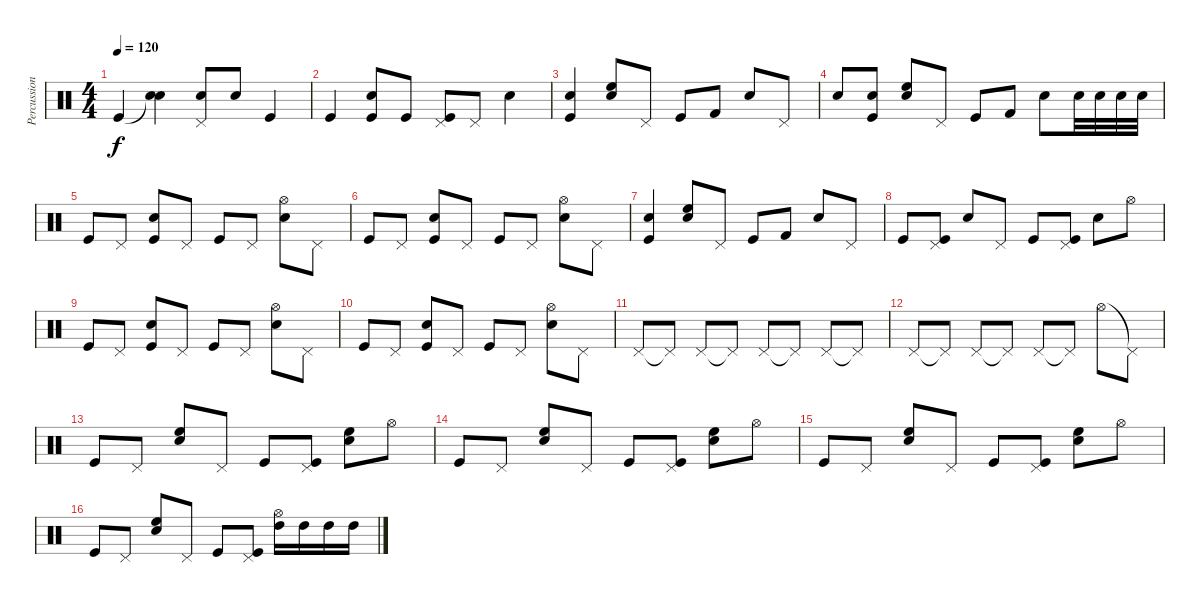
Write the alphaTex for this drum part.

\track ("Percussion" "Percussion") {instrument percussion}
\staff {score}
\articulation defaults
\ts (4 4)
\tempo 120
\clef neutral
\ks c "Kick (hit)".4{dy f}
("Snare (hit)"{t} "Snare (hit) 2").4 ("Pedal Hi-Hat (hit)" "Snare (hit) 2").8 "Snare (hit) 2".8 "Kick (hit)".4 |
"Kick (hit)".4 ("Snare (hit) 2" "Kick (hit)").8 "Kick (hit)".8 ("Pedal Hi-Hat (hit)" "Kick (hit)").8 "Pedal Hi-Hat (hit)".8 "Electric Snare (hit)".4 |
("Kick (hit)" "Snare (hit) 2").4 ("High Floor Tom (hit)" "Electric Snare (hit)").8 "Pedal Hi-Hat (hit)".8 "Kick (hit)".8 "Kick (hit) 2".8 "Electric Snare (hit)".8 "Pedal Hi-Hat (hit)".8 |
"Electric Snare (hit)".8 ("Kick (hit)" "Snare (hit) 2").8 ("High Floor Tom (hit)" "Electric Snare (hit)").8 "Pedal Hi-Hat (hit)".8 "Kick (hit)".8 "Kick (hit) 2".8 "Electric Snare (hit)".8 "Snare (hit) 2".32 "Snare (hit) 2".32 "Snare (hit) 2".32 "Snare (hit) 2".32 |
"Kick (hit)".8 "Pedal Hi-Hat (hit)".8 ("Snare (hit) 2" "Kick (hit)").8 "Pedal Hi-Hat (hit)".8 "Kick (hit)".8 "Pedal Hi-Hat (hit)".8 ("Electric Snare (hit)" "Hi-Hat (open)").8 "Pedal Hi-Hat (hit)".8 |
"Kick (hit)".8 "Pedal Hi-Hat (hit)".8 ("Snare (hit) 2" "Kick (hit)").8 "Pedal Hi-Hat (hit)".8 "Kick (hit)".8 "Pedal Hi-Hat (hit)".8 ("Electric Snare (hit)" "Hi-Hat (open)").8 "Pedal Hi-Hat (hit)".8 |
("Kick (hit)" "Snare (hit) 2").4 ("High Floor Tom (hit)" "Electric Snare (hit)").8 "Pedal Hi-Hat (hit)".8 "Kick (hit)".8 "Kick (hit) 2".8 "Electric Snare (hit)".8 "Pedal Hi-Hat (hit)".8 |
"Kick (hit)".8 ("Pedal Hi-Hat (hit)" "Kick (hit)").8 "Snare (hit) 2".8 "Pedal Hi-Hat (hit)".8 "Kick (hit)".8 ("Pedal Hi-Hat (hit)" "Kick (hit)").8 "Snare (hit) 2".8 "Hi-Hat (open)".8 |
"Kick (hit)".8 "Pedal Hi-Hat (hit)".8 ("Snare (hit) 2" "Kick (hit)").8 "Pedal Hi-Hat (hit)".8 "Kick (hit)".8 "Pedal Hi-Hat (hit)".8 ("Electric Snare (hit)" "Hi-Hat (open)").8 "Pedal Hi-Hat (hit)".8 |
"Kick (hit)".8 "Pedal Hi-Hat (hit)".8 ("Snare (hit) 2" "Kick (hit)").8 "Pedal Hi-Hat (hit)".8 "Kick (hit)".8 "Pedal Hi-Hat (hit)".8 ("Electric Snare (hit)" "Hi-Hat (open)").8 "Pedal Hi-Hat (hit)".8 |
"Pedal Hi-Hat (hit)".8 "Pedal Hi-Hat (hit)"{t}.8 "Pedal Hi-Hat (hit)".8 "Pedal Hi-Hat (hit)"{t}.8 "Pedal Hi-Hat (hit)".8 "Pedal Hi-Hat (hit)"{t}.8 "Pedal Hi-Hat (hit)".8 "Pedal Hi-Hat (hit)"{t}.8 |
"Pedal Hi-Hat (hit)".8 "Pedal Hi-Hat (hit)"{t}.8 "Pedal Hi-Hat (hit)".8 "Pedal Hi-Hat (hit)"{t}.8 "Pedal Hi-Hat (hit)".8 "Pedal Hi-Hat (hit)"{t}.8 "Hi-Hat (open)".8 "Pedal Hi-Hat (hit)"{t}.8 |
"Kick (hit)".8 "Pedal Hi-Hat (hit)".8 ("Electric Snare (hit)" "High Floor Tom (hit)").8 "Pedal Hi-Hat (hit)".8 "Kick (hit)".8 ("Pedal Hi-Hat (hit)" "Kick (hit)").8 ("Electric Snare (hit)" "High Floor Tom (hit)").8 "Hi-Hat (open)".8 |
"Kick (hit)".8 "Pedal Hi-Hat (hit)".8 ("Electric Snare (hit)" "High Floor Tom (hit)").8 "Pedal Hi-Hat (hit)".8 "Kick (hit)".8 ("Pedal Hi-Hat (hit)" "Kick (hit)").8 ("Electric Snare (hit)" "High Floor Tom (hit)").8 "Hi-Hat (open)".8 |
"Kick (hit)".8 "Pedal Hi-Hat (hit)".8 ("Electric Snare (hit)" "High Floor Tom (hit)").8 "Pedal Hi-Hat (hit)".8 "Kick (hit)".8 ("Pedal Hi-Hat (hit)" "Kick (hit)").8 ("Electric Snare (hit)" "High Floor Tom (hit)").8 "Hi-Hat (open)".8 |
"Kick (hit)".8 "Pedal Hi-Hat (hit)".8 ("Electric Snare (hit)" "High Floor Tom (hit)").8 "Pedal Hi-Hat (hit)".8 "Kick (hit)".8 ("Pedal Hi-Hat (hit)" "Kick (hit)").8 ("Hi-Hat (open)" "High Tom (hit)").16 "High Tom (hit)".16 "High Tom (hit)".16 "High Tom (hit)".16
